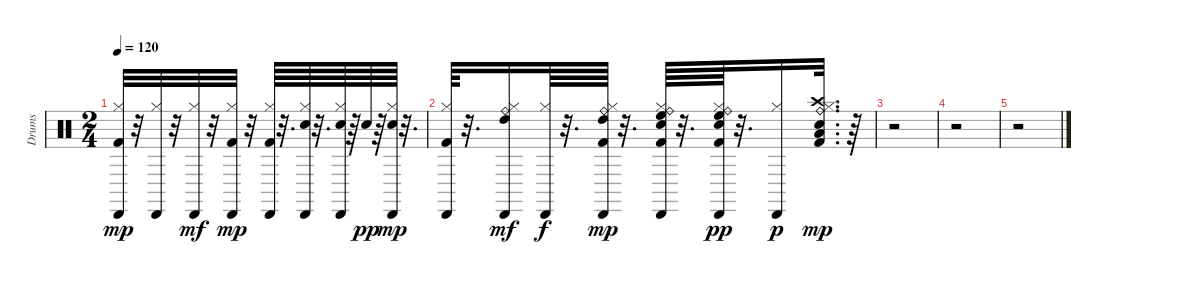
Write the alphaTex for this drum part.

\track ("Drums" "Drums") {instrument percussion}
\staff {score}
\articulation defaults
\ts (2 4)
\tempo 120
\clef neutral
\ks c
("Kick (hit) 2" "Hi-Hat (closed)" "Cabasa (hit)").32{dy mp} r.32 ("Hi-Hat (closed)" "Cabasa (hit)").32 r.32 ("Hi-Hat (closed)" "Cabasa (hit)").32{dy mf} r.32 ("Kick (hit) 2" "Hi-Hat (closed)" "Cabasa (hit)").32{dy mp} r.32 ("Kick (hit) 2" "Hi-Hat (closed)" "Cabasa (hit)").64 r.32{d} ("Snare (hit) 2" "Hi-Hat (closed)" "Cabasa (hit)").64 r.32{d} ("Electric Snare (hit)" "Hi-Hat (closed)" "Cabasa (hit)").64 r.64 "Snare (hit) 2".64{dy pp} r.64 ("Electric Snare (hit)" "Hi-Hat (closed)" "Cabasa (hit)").64{dy mp} r.32{d} |
("Kick (hit) 2" "Hi-Hat (closed)" "Cabasa (hit)").64 r.32{d} ("High Tom (hit)" "Ride (bell)" "Hi-Hat (closed)" "Cabasa (hit)").16{dy mf} ("Hi-Hat (closed)" "Cabasa (hit)").64{dy f} r.32{d} ("High Tom (hit)" "Ride (bell)" "Kick (hit) 2" "Hi-Hat (closed)" "Cabasa (hit)").64{dy mp} r.32{d} ("High Floor Tom (hit)" "Hi-Hat (closed)" "Electric Snare (hit)" "Ride (bell)" "Kick (hit) 2" "Cabasa (hit)").64 r.32{d} ("High Floor Tom (hit)" "Kick (hit) 2" "Electric Snare (hit)" "Ride (bell)" "Hi-Hat (closed)" "Cabasa (hit)").64{dy pp} r.32{d} ("Hi-Hat (closed)" "Cabasa (hit)").16{dy p} ("Low Tom (hit)" "Electric Snare (hit)" "Crash high (hit)" "Ride (bell)" "Kick (hit) 2" "Hi-Hat (closed)").32{d dy mp} r.64 |
r.2 |
r.2 |
r.2
